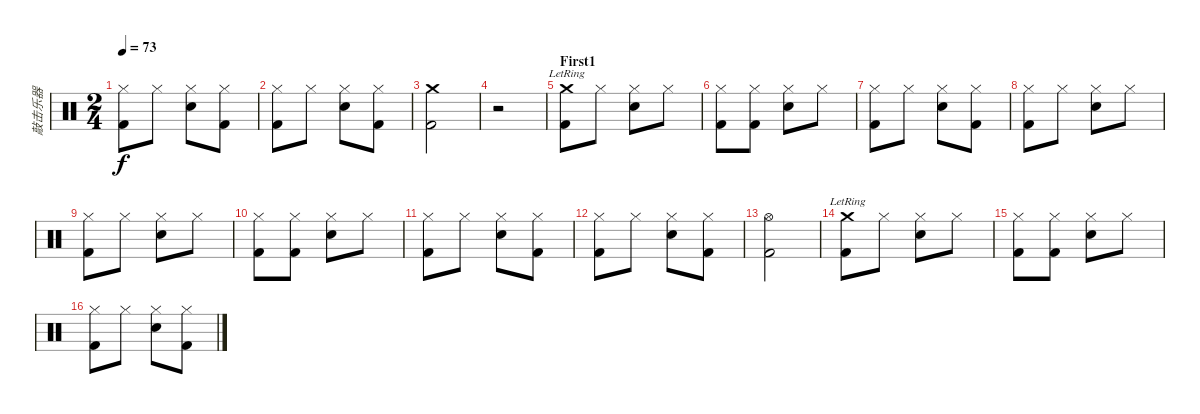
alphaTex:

\track ("敲击乐器" "敲击乐器") {instrument percussion}
\staff {score}
\articulation defaults
\ts (2 4)
\tempo 73
\clef neutral
\ks c
("Hi-Hat (closed)" "Kick (hit) 2").8{dy f} "Hi-Hat (closed)".8 ("Hi-Hat (closed)" "Electric Snare (hit)").8 ("Hi-Hat (closed)" "Kick (hit) 2").8 |
("Hi-Hat (closed)" "Kick (hit) 2").8 "Hi-Hat (closed)".8 ("Hi-Hat (closed)" "Electric Snare (hit)").8 ("Hi-Hat (closed)" "Kick (hit) 2").8 |
("Crash medium (hit)" "Kick (hit) 2").2 |
r.2 |
\section ("" "First1")
("Crash medium (hit)"{lr} "Kick (hit) 2").8 "Hi-Hat (closed)".8 ("Hi-Hat (closed)" "Electric Snare (hit)").8 "Hi-Hat (closed)".8 |
("Hi-Hat (closed)" "Kick (hit) 2").8 ("Hi-Hat (closed)" "Kick (hit) 2").8 ("Hi-Hat (closed)" "Electric Snare (hit)").8 "Hi-Hat (closed)".8 |
("Hi-Hat (closed)" "Kick (hit) 2").8 "Hi-Hat (closed)".8 ("Hi-Hat (closed)" "Electric Snare (hit)").8 ("Hi-Hat (closed)" "Kick (hit) 2").8 |
("Hi-Hat (closed)" "Kick (hit) 2").8 "Hi-Hat (closed)".8 ("Hi-Hat (closed)" "Electric Snare (hit)").8 "Hi-Hat (closed)".8 |
("Hi-Hat (closed)" "Kick (hit) 2").8 "Hi-Hat (closed)".8 ("Hi-Hat (closed)" "Electric Snare (hit)").8 "Hi-Hat (closed)".8 |
("Hi-Hat (closed)" "Kick (hit) 2").8 ("Hi-Hat (closed)" "Kick (hit) 2").8 ("Hi-Hat (closed)" "Electric Snare (hit)").8 "Hi-Hat (closed)".8 |
("Hi-Hat (closed)" "Kick (hit) 2").8 "Hi-Hat (closed)".8 ("Hi-Hat (closed)" "Electric Snare (hit)").8 ("Hi-Hat (closed)" "Kick (hit) 2").8 |
("Hi-Hat (closed)" "Kick (hit) 2").8 "Hi-Hat (closed)".8 ("Hi-Hat (closed)" "Electric Snare (hit)").8 ("Hi-Hat (closed)" "Kick (hit) 2").8 |
("Hi-Hat (open)" "Kick (hit) 2").2 |
("Crash medium (hit)"{lr} "Kick (hit) 2").8 "Hi-Hat (closed)".8 ("Hi-Hat (closed)" "Electric Snare (hit)").8 "Hi-Hat (closed)".8 |
("Hi-Hat (closed)" "Kick (hit) 2").8 ("Hi-Hat (closed)" "Kick (hit) 2").8 ("Hi-Hat (closed)" "Electric Snare (hit)").8 "Hi-Hat (closed)".8 |
("Hi-Hat (closed)" "Kick (hit) 2").8 "Hi-Hat (closed)".8 ("Hi-Hat (closed)" "Electric Snare (hit)").8 ("Hi-Hat (closed)" "Kick (hit) 2").8
